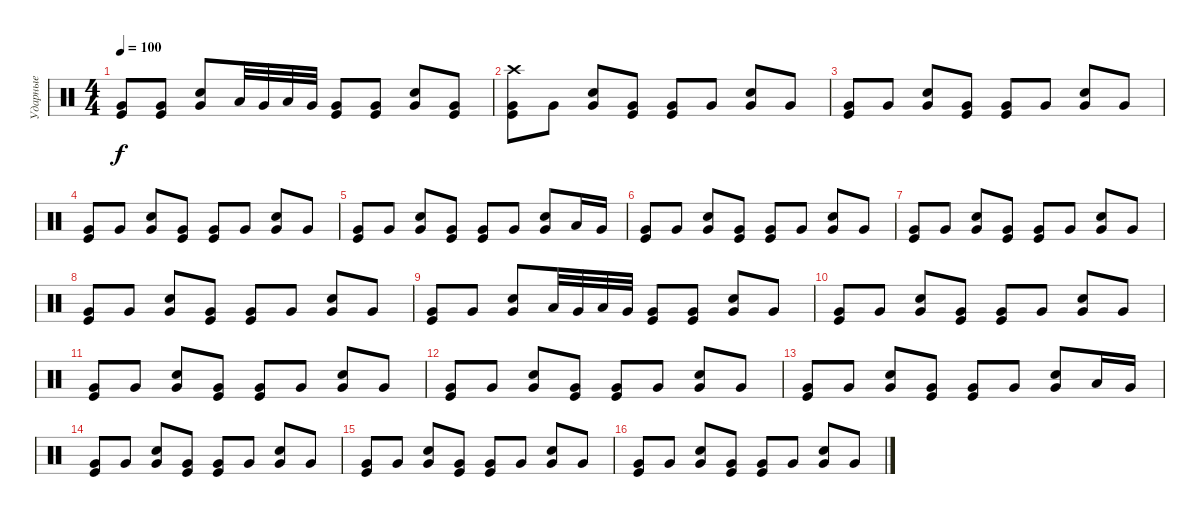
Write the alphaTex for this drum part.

\track ("Ударные" "Ударные") {instrument percussion}
\staff {score}
\articulation defaults
\ts (4 4)
\tempo 100
\clef neutral
\ks c
("Kick (hit)" "Very Low Tom (hit)").8{dy f} ("Kick (hit)" "Very Low Tom (hit)").8 ("Snare (hit) 2" "Very Low Tom (hit)").8 "Low Tom (hit)".32 "Very Low Tom (hit)".32 "Low Tom (hit)".32 "Very Low Tom (hit)".32 ("Kick (hit)" "Very Low Tom (hit)").8 ("Kick (hit)" "Very Low Tom (hit)").8 ("Snare (hit) 2" "Very Low Tom (hit)").8 ("Kick (hit)" "Very Low Tom (hit)").8 |
("Crash high (hit)" "Very Low Tom (hit)" "Kick (hit)").8 "Very Low Tom (hit)".8 ("Very Low Tom (hit)" "Snare (hit) 2").8 ("Very Low Tom (hit)" "Kick (hit)").8 ("Very Low Tom (hit)" "Kick (hit)").8 "Very Low Tom (hit)".8 ("Very Low Tom (hit)" "Snare (hit) 2").8 "Very Low Tom (hit)".8 |
("Very Low Tom (hit)" "Kick (hit)").8 "Very Low Tom (hit)".8 ("Very Low Tom (hit)" "Snare (hit) 2").8 ("Very Low Tom (hit)" "Kick (hit)").8 ("Very Low Tom (hit)" "Kick (hit)").8 "Very Low Tom (hit)".8 ("Very Low Tom (hit)" "Snare (hit) 2").8 "Very Low Tom (hit)".8 |
("Very Low Tom (hit)" "Kick (hit)").8 "Very Low Tom (hit)".8 ("Very Low Tom (hit)" "Snare (hit) 2").8 ("Very Low Tom (hit)" "Kick (hit)").8 ("Very Low Tom (hit)" "Kick (hit)").8 "Very Low Tom (hit)".8 ("Very Low Tom (hit)" "Snare (hit) 2").8 "Very Low Tom (hit)".8 |
("Very Low Tom (hit)" "Kick (hit)").8 "Very Low Tom (hit)".8 ("Very Low Tom (hit)" "Snare (hit) 2").8 ("Very Low Tom (hit)" "Kick (hit)").8 ("Very Low Tom (hit)" "Kick (hit)").8 "Very Low Tom (hit)".8 ("Very Low Tom (hit)" "Snare (hit) 2").8 "Low Tom (hit)".16 "Very Low Tom (hit)".16 |
("Very Low Tom (hit)" "Kick (hit)").8 "Very Low Tom (hit)".8 ("Very Low Tom (hit)" "Snare (hit) 2").8 ("Very Low Tom (hit)" "Kick (hit)").8 ("Very Low Tom (hit)" "Kick (hit)").8 "Very Low Tom (hit)".8 ("Very Low Tom (hit)" "Snare (hit) 2").8 "Very Low Tom (hit)".8 |
("Very Low Tom (hit)" "Kick (hit)").8 "Very Low Tom (hit)".8 ("Very Low Tom (hit)" "Snare (hit) 2").8 ("Very Low Tom (hit)" "Kick (hit)").8 ("Very Low Tom (hit)" "Kick (hit)").8 "Very Low Tom (hit)".8 ("Very Low Tom (hit)" "Snare (hit) 2").8 "Very Low Tom (hit)".8 |
("Very Low Tom (hit)" "Kick (hit)").8 "Very Low Tom (hit)".8 ("Very Low Tom (hit)" "Snare (hit) 2").8 ("Very Low Tom (hit)" "Kick (hit)").8 ("Very Low Tom (hit)" "Kick (hit)").8 "Very Low Tom (hit)".8 ("Very Low Tom (hit)" "Snare (hit) 2").8 "Very Low Tom (hit)".8 |
("Kick (hit)" "Very Low Tom (hit)").8 "Very Low Tom (hit)".8 ("Snare (hit) 2" "Very Low Tom (hit)").8 "Low Tom (hit)".32 "Very Low Tom (hit)".32 "Low Tom (hit)".32 "Very Low Tom (hit)".32 ("Kick (hit)" "Very Low Tom (hit)").8 ("Kick (hit)" "Very Low Tom (hit)").8 ("Snare (hit) 2" "Very Low Tom (hit)").8 "Very Low Tom (hit)".8 |
("Very Low Tom (hit)" "Kick (hit)").8 "Very Low Tom (hit)".8 ("Very Low Tom (hit)" "Snare (hit) 2").8 ("Very Low Tom (hit)" "Kick (hit)").8 ("Very Low Tom (hit)" "Kick (hit)").8 "Very Low Tom (hit)".8 ("Very Low Tom (hit)" "Snare (hit) 2").8 "Very Low Tom (hit)".8 |
("Very Low Tom (hit)" "Kick (hit)").8 "Very Low Tom (hit)".8 ("Very Low Tom (hit)" "Snare (hit) 2").8 ("Very Low Tom (hit)" "Kick (hit)").8 ("Very Low Tom (hit)" "Kick (hit)").8 "Very Low Tom (hit)".8 ("Very Low Tom (hit)" "Snare (hit) 2").8 "Very Low Tom (hit)".8 |
("Very Low Tom (hit)" "Kick (hit)").8 "Very Low Tom (hit)".8 ("Very Low Tom (hit)" "Snare (hit) 2").8 ("Very Low Tom (hit)" "Kick (hit)").8 ("Very Low Tom (hit)" "Kick (hit)").8 "Very Low Tom (hit)".8 ("Very Low Tom (hit)" "Snare (hit) 2").8 "Very Low Tom (hit)".8 |
("Very Low Tom (hit)" "Kick (hit)").8 "Very Low Tom (hit)".8 ("Very Low Tom (hit)" "Snare (hit) 2").8 ("Very Low Tom (hit)" "Kick (hit)").8 ("Very Low Tom (hit)" "Kick (hit)").8 "Very Low Tom (hit)".8 ("Very Low Tom (hit)" "Snare (hit) 2").8 "Low Tom (hit)".16 "Very Low Tom (hit)".16 |
("Very Low Tom (hit)" "Kick (hit)").8 "Very Low Tom (hit)".8 ("Very Low Tom (hit)" "Snare (hit) 2").8 ("Very Low Tom (hit)" "Kick (hit)").8 ("Very Low Tom (hit)" "Kick (hit)").8 "Very Low Tom (hit)".8 ("Very Low Tom (hit)" "Snare (hit) 2").8 "Very Low Tom (hit)".8 |
("Very Low Tom (hit)" "Kick (hit)").8 "Very Low Tom (hit)".8 ("Very Low Tom (hit)" "Snare (hit) 2").8 ("Very Low Tom (hit)" "Kick (hit)").8 ("Very Low Tom (hit)" "Kick (hit)").8 "Very Low Tom (hit)".8 ("Very Low Tom (hit)" "Snare (hit) 2").8 "Very Low Tom (hit)".8 |
("Very Low Tom (hit)" "Kick (hit)").8 "Very Low Tom (hit)".8 ("Very Low Tom (hit)" "Snare (hit) 2").8 ("Very Low Tom (hit)" "Kick (hit)").8 ("Very Low Tom (hit)" "Kick (hit)").8 "Very Low Tom (hit)".8 ("Very Low Tom (hit)" "Snare (hit) 2").8 "Very Low Tom (hit)".8
